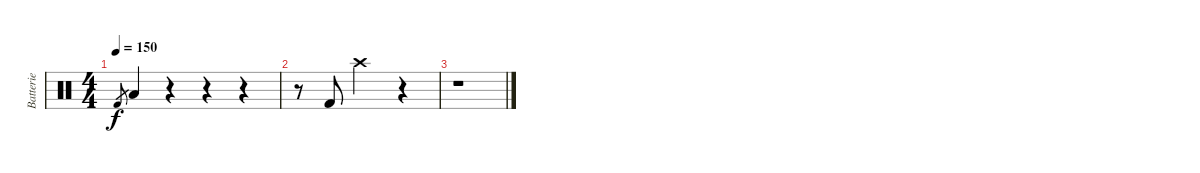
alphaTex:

\track ("Batterie" "Batterie") {instrument percussion}
\staff {score}
\articulation defaults
\ts (4 4)
\tempo 150
\clef neutral
\ks c "Kick (hit) 2".8{gr dy f} "Low Tom (hit)".4
r.4 r.4 r.4 |
r.8 "Kick (hit) 2".8 "Crash high (hit)".2 r.4 |
r.1
